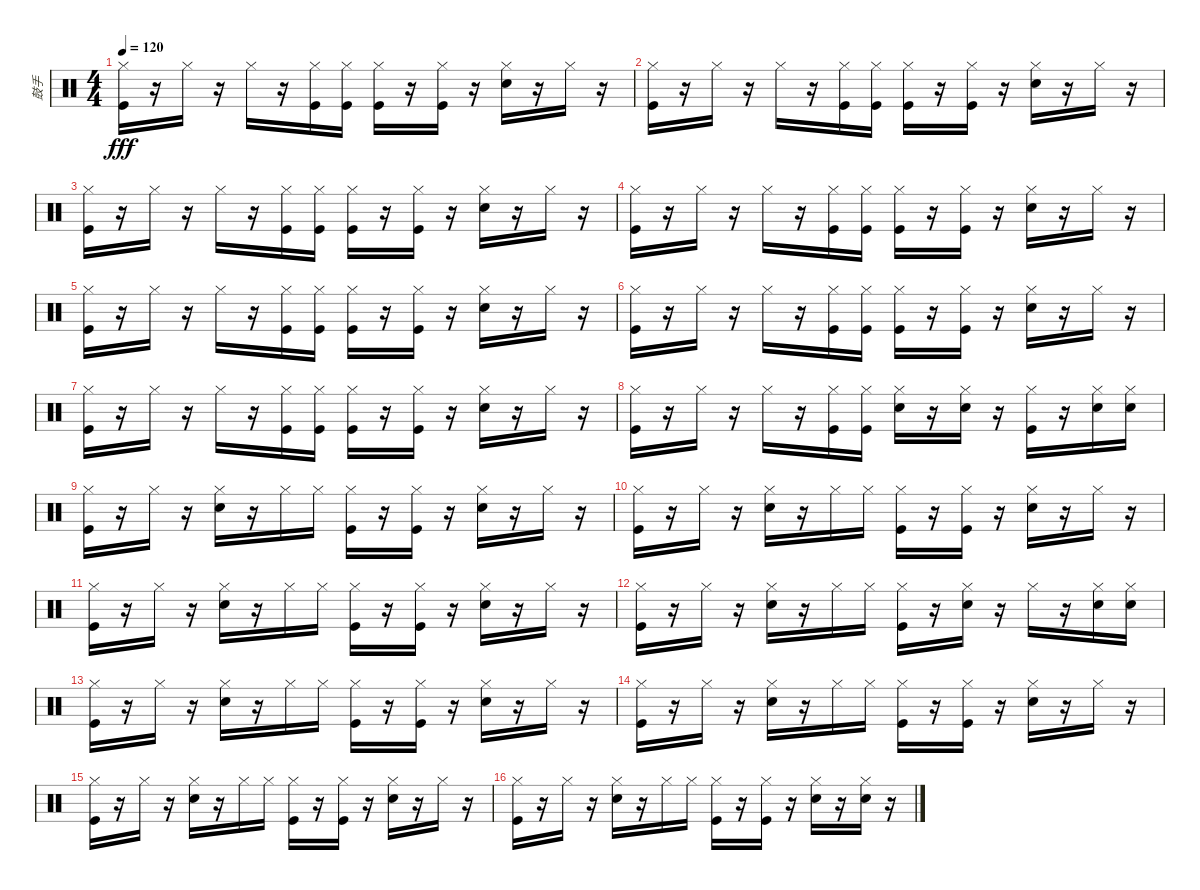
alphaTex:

\track ("鼓手" "鼓手") {instrument percussion}
\staff {score}
\articulation defaults
\ts (4 4)
\tempo 120
\clef neutral
\ks c
("Kick (hit)" "Hi-Hat (closed)").16{dy fff} r.16 "Hi-Hat (closed)".16 r.16 "Hi-Hat (closed)".16 r.16 ("Kick (hit)" "Hi-Hat (closed)").16 ("Kick (hit)" "Hi-Hat (closed)").16 ("Kick (hit)" "Hi-Hat (closed)").16 r.16 ("Kick (hit)" "Hi-Hat (closed)").16 r.16 ("Snare (hit) 2" "Hi-Hat (closed)").16 r.16 "Hi-Hat (closed)".16 r.16 |
("Kick (hit)" "Hi-Hat (closed)").16 r.16 "Hi-Hat (closed)".16 r.16 "Hi-Hat (closed)".16 r.16 ("Kick (hit)" "Hi-Hat (closed)").16 ("Kick (hit)" "Hi-Hat (closed)").16 ("Kick (hit)" "Hi-Hat (closed)").16 r.16 ("Kick (hit)" "Hi-Hat (closed)").16 r.16 ("Snare (hit) 2" "Hi-Hat (closed)").16 r.16 "Hi-Hat (closed)".16 r.16 |
("Kick (hit)" "Hi-Hat (closed)").16 r.16 "Hi-Hat (closed)".16 r.16 "Hi-Hat (closed)".16 r.16 ("Kick (hit)" "Hi-Hat (closed)").16 ("Kick (hit)" "Hi-Hat (closed)").16 ("Kick (hit)" "Hi-Hat (closed)").16 r.16 ("Kick (hit)" "Hi-Hat (closed)").16 r.16 ("Snare (hit) 2" "Hi-Hat (closed)").16 r.16 "Hi-Hat (closed)".16 r.16 |
("Kick (hit)" "Hi-Hat (closed)").16 r.16 "Hi-Hat (closed)".16 r.16 "Hi-Hat (closed)".16 r.16 ("Kick (hit)" "Hi-Hat (closed)").16 ("Kick (hit)" "Hi-Hat (closed)").16 ("Kick (hit)" "Hi-Hat (closed)").16 r.16 ("Kick (hit)" "Hi-Hat (closed)").16 r.16 ("Snare (hit) 2" "Hi-Hat (closed)").16 r.16 "Hi-Hat (closed)".16 r.16 |
("Kick (hit)" "Hi-Hat (closed)").16 r.16 "Hi-Hat (closed)".16 r.16 "Hi-Hat (closed)".16 r.16 ("Kick (hit)" "Hi-Hat (closed)").16 ("Kick (hit)" "Hi-Hat (closed)").16 ("Kick (hit)" "Hi-Hat (closed)").16 r.16 ("Kick (hit)" "Hi-Hat (closed)").16 r.16 ("Snare (hit) 2" "Hi-Hat (closed)").16 r.16 "Hi-Hat (closed)".16 r.16 |
("Kick (hit)" "Hi-Hat (closed)").16 r.16 "Hi-Hat (closed)".16 r.16 "Hi-Hat (closed)".16 r.16 ("Kick (hit)" "Hi-Hat (closed)").16 ("Kick (hit)" "Hi-Hat (closed)").16 ("Kick (hit)" "Hi-Hat (closed)").16 r.16 ("Kick (hit)" "Hi-Hat (closed)").16 r.16 ("Snare (hit) 2" "Hi-Hat (closed)").16 r.16 "Hi-Hat (closed)".16 r.16 |
("Kick (hit)" "Hi-Hat (closed)").16 r.16 "Hi-Hat (closed)".16 r.16 "Hi-Hat (closed)".16 r.16 ("Kick (hit)" "Hi-Hat (closed)").16 ("Kick (hit)" "Hi-Hat (closed)").16 ("Kick (hit)" "Hi-Hat (closed)").16 r.16 ("Kick (hit)" "Hi-Hat (closed)").16 r.16 ("Snare (hit) 2" "Hi-Hat (closed)").16 r.16 "Hi-Hat (closed)".16 r.16 |
("Kick (hit)" "Hi-Hat (closed)").16 r.16 "Hi-Hat (closed)".16 r.16 "Hi-Hat (closed)".16 r.16 ("Kick (hit)" "Hi-Hat (closed)").16 ("Kick (hit)" "Hi-Hat (closed)").16 ("Snare (hit) 2" "Hi-Hat (closed)").16 r.16 ("Snare (hit) 2" "Hi-Hat (closed)").16 r.16 ("Kick (hit)" "Hi-Hat (closed)").16 r.16 ("Snare (hit) 2" "Hi-Hat (closed)").16 ("Snare (hit) 2" "Hi-Hat (closed)").16 |
("Kick (hit)" "Hi-Hat (closed)").16 r.16 "Hi-Hat (closed)".16 r.16 ("Snare (hit) 2" "Hi-Hat (closed)").16 r.16 "Hi-Hat (closed)".16 "Hi-Hat (closed)".16 ("Kick (hit)" "Hi-Hat (closed)").16 r.16 ("Kick (hit)" "Hi-Hat (closed)").16 r.16 ("Snare (hit) 2" "Hi-Hat (closed)").16 r.16 "Hi-Hat (closed)".16 r.16 |
("Kick (hit)" "Hi-Hat (closed)").16 r.16 "Hi-Hat (closed)".16 r.16 ("Snare (hit) 2" "Hi-Hat (closed)").16 r.16 "Hi-Hat (closed)".16 "Hi-Hat (closed)".16 ("Kick (hit)" "Hi-Hat (closed)").16 r.16 ("Kick (hit)" "Hi-Hat (closed)").16 r.16 ("Snare (hit) 2" "Hi-Hat (closed)").16 r.16 "Hi-Hat (closed)".16 r.16 |
("Kick (hit)" "Hi-Hat (closed)").16 r.16 "Hi-Hat (closed)".16 r.16 ("Snare (hit) 2" "Hi-Hat (closed)").16 r.16 "Hi-Hat (closed)".16 "Hi-Hat (closed)".16 ("Kick (hit)" "Hi-Hat (closed)").16 r.16 ("Kick (hit)" "Hi-Hat (closed)").16 r.16 ("Snare (hit) 2" "Hi-Hat (closed)").16 r.16 "Hi-Hat (closed)".16 r.16 |
("Kick (hit)" "Hi-Hat (closed)").16 r.16 "Hi-Hat (closed)".16 r.16 ("Snare (hit) 2" "Hi-Hat (closed)").16 r.16 "Hi-Hat (closed)".16 "Hi-Hat (closed)".16 ("Kick (hit)" "Hi-Hat (closed)").16 r.16 ("Snare (hit) 2" "Hi-Hat (closed)").16 r.16 "Hi-Hat (closed)".16 r.16 ("Snare (hit) 2" "Hi-Hat (closed)").16 ("Snare (hit) 2" "Hi-Hat (closed)").16 |
("Kick (hit)" "Hi-Hat (closed)").16 r.16 "Hi-Hat (closed)".16 r.16 ("Snare (hit) 2" "Hi-Hat (closed)").16 r.16 "Hi-Hat (closed)".16 "Hi-Hat (closed)".16 ("Kick (hit)" "Hi-Hat (closed)").16 r.16 ("Kick (hit)" "Hi-Hat (closed)").16 r.16 ("Snare (hit) 2" "Hi-Hat (closed)").16 r.16 "Hi-Hat (closed)".16 r.16 |
("Kick (hit)" "Hi-Hat (closed)").16 r.16 "Hi-Hat (closed)".16 r.16 ("Snare (hit) 2" "Hi-Hat (closed)").16 r.16 "Hi-Hat (closed)".16 "Hi-Hat (closed)".16 ("Kick (hit)" "Hi-Hat (closed)").16 r.16 ("Kick (hit)" "Hi-Hat (closed)").16 r.16 ("Snare (hit) 2" "Hi-Hat (closed)").16 r.16 "Hi-Hat (closed)".16 r.16 |
("Kick (hit)" "Hi-Hat (closed)").16 r.16 "Hi-Hat (closed)".16 r.16 ("Snare (hit) 2" "Hi-Hat (closed)").16 r.16 "Hi-Hat (closed)".16 "Hi-Hat (closed)".16 ("Kick (hit)" "Hi-Hat (closed)").16 r.16 ("Kick (hit)" "Hi-Hat (closed)").16 r.16 ("Snare (hit) 2" "Hi-Hat (closed)").16 r.16 "Hi-Hat (closed)".16 r.16 |
("Kick (hit)" "Hi-Hat (closed)").16 r.16 "Hi-Hat (closed)".16 r.16 ("Snare (hit) 2" "Hi-Hat (closed)").16 r.16 "Hi-Hat (closed)".16 "Hi-Hat (closed)".16 ("Kick (hit)" "Hi-Hat (closed)").16 r.16 ("Kick (hit)" "Hi-Hat (closed)").16 r.16 ("Snare (hit) 2" "Hi-Hat (closed)").16 r.16 ("Snare (hit) 2" "Hi-Hat (closed)").16 r.16
